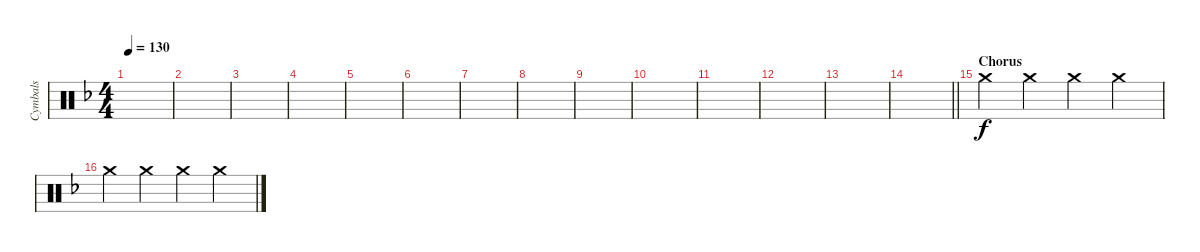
\track ("Cymbals" "Cymbals") {instrument percussion}
\staff {score}
\articulation defaults
\ts (4 4)
\tempo 130
\clef neutral
\ks f
|
|
|
|
|
|
|
|
|
|
|
|
|
\barLineRight lightlight
|
\section ("" "Chorus")
"Crash medium (hit)".4 "Crash medium (hit)".4 "Crash medium (hit)".4 "Crash medium (hit)".4 |
"Crash medium (hit)".4 "Crash medium (hit)".4 "Crash medium (hit)".4 "Crash medium (hit)".4
